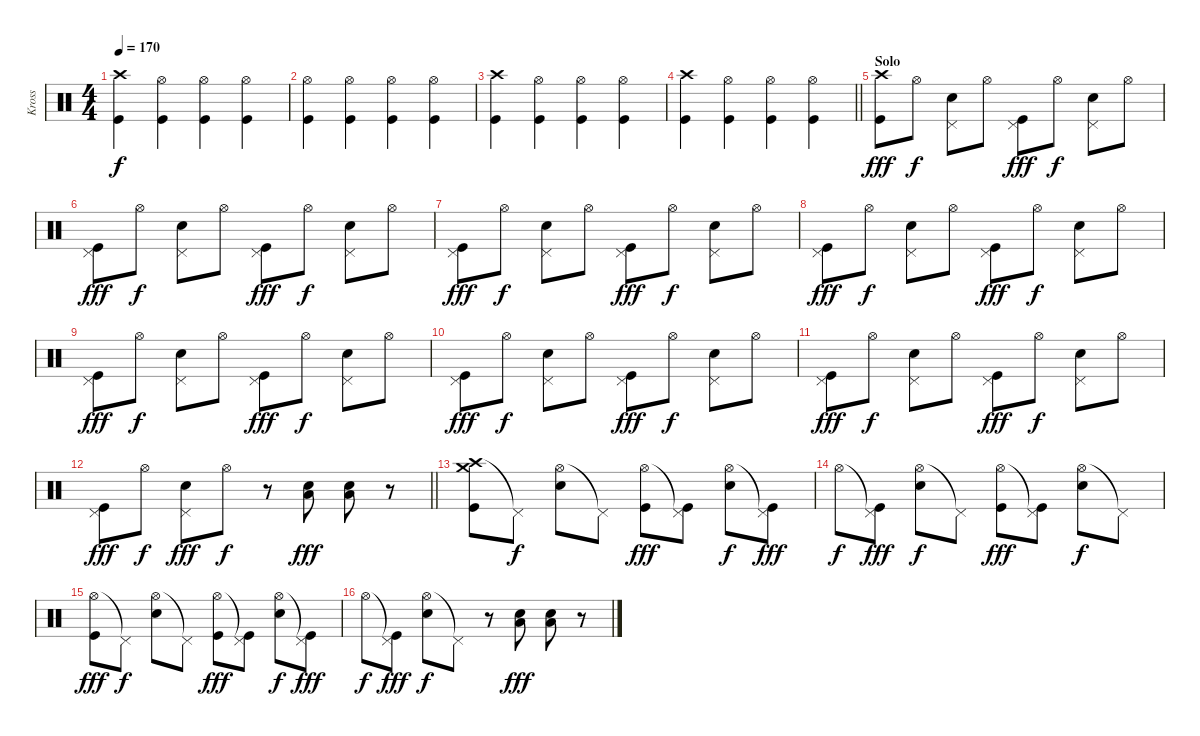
\track ("Kross" "Kross") {instrument percussion}
\staff {score}
\articulation defaults
\ts (4 4)
\tempo 170
\clef neutral
\ks c
("Crash high (hit)" "Kick (hit)").4{dy f} ("Hi-Hat (open)" "Kick (hit)").4 ("Hi-Hat (open)" "Kick (hit)").4 ("Hi-Hat (open)" "Kick (hit)").4 |
("Hi-Hat (open)" "Kick (hit)").4 ("Hi-Hat (open)" "Kick (hit)").4 ("Hi-Hat (open)" "Kick (hit)").4 ("Hi-Hat (open)" "Kick (hit)").4 |
("Crash high (hit)" "Kick (hit)").4 ("Hi-Hat (open)" "Kick (hit)").4 ("Hi-Hat (open)" "Kick (hit)").4 ("Hi-Hat (open)" "Kick (hit)").4 |
\barLineRight lightlight
("Crash high (hit)" "Kick (hit)").4 ("Hi-Hat (open)" "Kick (hit)").4 ("Hi-Hat (open)" "Kick (hit)").4 ("Hi-Hat (open)" "Kick (hit)").4 |
\section ("" "Solo")
("Crash high (hit)" "Kick (hit)").8{dy fff} "Hi-Hat (open)".8{dy f} ("Pedal Hi-Hat (hit)" "Electric Snare (hit)").8 "Hi-Hat (open)".8 ("Pedal Hi-Hat (hit)" "Kick (hit)").8{dy fff} "Hi-Hat (open)".8{dy f} ("Pedal Hi-Hat (hit)" "Electric Snare (hit)").8 "Hi-Hat (open)".8 |
("Pedal Hi-Hat (hit)" "Kick (hit)").8{dy fff} "Hi-Hat (open)".8{dy f} ("Pedal Hi-Hat (hit)" "Electric Snare (hit)").8 "Hi-Hat (open)".8 ("Pedal Hi-Hat (hit)" "Kick (hit)").8{dy fff} "Hi-Hat (open)".8{dy f} ("Pedal Hi-Hat (hit)" "Electric Snare (hit)").8 "Hi-Hat (open)".8 |
("Pedal Hi-Hat (hit)" "Kick (hit)").8{dy fff} "Hi-Hat (open)".8{dy f} ("Pedal Hi-Hat (hit)" "Electric Snare (hit)").8 "Hi-Hat (open)".8 ("Pedal Hi-Hat (hit)" "Kick (hit)").8{dy fff} "Hi-Hat (open)".8{dy f} ("Pedal Hi-Hat (hit)" "Electric Snare (hit)").8 "Hi-Hat (open)".8 |
("Pedal Hi-Hat (hit)" "Kick (hit)").8{dy fff} "Hi-Hat (open)".8{dy f} ("Pedal Hi-Hat (hit)" "Electric Snare (hit)").8 "Hi-Hat (open)".8 ("Pedal Hi-Hat (hit)" "Kick (hit)").8{dy fff} "Hi-Hat (open)".8{dy f} ("Pedal Hi-Hat (hit)" "Electric Snare (hit)").8 "Hi-Hat (open)".8 |
("Pedal Hi-Hat (hit)" "Kick (hit)").8{dy fff} "Hi-Hat (open)".8{dy f} ("Pedal Hi-Hat (hit)" "Electric Snare (hit)").8 "Hi-Hat (open)".8 ("Pedal Hi-Hat (hit)" "Kick (hit)").8{dy fff} "Hi-Hat (open)".8{dy f} ("Pedal Hi-Hat (hit)" "Electric Snare (hit)").8 "Hi-Hat (open)".8 |
("Pedal Hi-Hat (hit)" "Kick (hit)").8{dy fff} "Hi-Hat (open)".8{dy f} ("Pedal Hi-Hat (hit)" "Electric Snare (hit)").8 "Hi-Hat (open)".8 ("Pedal Hi-Hat (hit)" "Kick (hit)").8{dy fff} "Hi-Hat (open)".8{dy f} ("Pedal Hi-Hat (hit)" "Electric Snare (hit)").8 "Hi-Hat (open)".8 |
("Pedal Hi-Hat (hit)" "Kick (hit)").8{dy fff} "Hi-Hat (open)".8{dy f} ("Pedal Hi-Hat (hit)" "Electric Snare (hit)").8 "Hi-Hat (open)".8 ("Pedal Hi-Hat (hit)" "Kick (hit)").8{dy fff} "Hi-Hat (open)".8{dy f} ("Pedal Hi-Hat (hit)" "Electric Snare (hit)").8 "Hi-Hat (open)".8 |
\barLineRight lightlight
("Pedal Hi-Hat (hit)" "Kick (hit)").8{dy fff} "Hi-Hat (open)".8{dy f} ("Pedal Hi-Hat (hit)" "Electric Snare (hit)").8{dy fff} "Hi-Hat (open)".8{dy f} r.8 ("Low Floor Tom (hit)" "Electric Snare (hit)").8{dy fff} ("Low Floor Tom (hit)" "Electric Snare (hit)").8 r.8 |
("Crash high (hit)" "Crash medium (hit)" "Kick (hit)").8 "Pedal Hi-Hat (hit)"{t}.8{dy f} ("Hi-Hat (open)" "Electric Snare (hit)").8 "Pedal Hi-Hat (hit)"{t}.8 ("Hi-Hat (open)" "Kick (hit)").8{dy fff} ("Pedal Hi-Hat (hit)"{t} "Kick (hit)").8 ("Hi-Hat (open)" "Electric Snare (hit)").8{dy f} ("Pedal Hi-Hat (hit)"{t} "Kick (hit)").8{dy fff} |
"Hi-Hat (open)".8{dy f} ("Pedal Hi-Hat (hit)"{t} "Kick (hit)").8{dy fff} ("Hi-Hat (open)" "Electric Snare (hit)").8{dy f} "Pedal Hi-Hat (hit)"{t}.8 ("Hi-Hat (open)" "Kick (hit)").8{dy fff} ("Pedal Hi-Hat (hit)"{t} "Kick (hit)").8 ("Hi-Hat (open)" "Electric Snare (hit)").8{dy f} "Pedal Hi-Hat (hit)"{t}.8 |
("Hi-Hat (open)" "Kick (hit)").8{dy fff} "Pedal Hi-Hat (hit)"{t}.8{dy f} ("Hi-Hat (open)" "Electric Snare (hit)").8 "Pedal Hi-Hat (hit)"{t}.8 ("Hi-Hat (open)" "Kick (hit)").8{dy fff} ("Pedal Hi-Hat (hit)"{t} "Kick (hit)").8 ("Hi-Hat (open)" "Electric Snare (hit)").8{dy f} ("Pedal Hi-Hat (hit)"{t} "Kick (hit)").8{dy fff} |
"Hi-Hat (open)".8{dy f} ("Pedal Hi-Hat (hit)"{t} "Kick (hit)").8{dy fff} ("Hi-Hat (open)" "Electric Snare (hit)").8{dy f} "Pedal Hi-Hat (hit)"{t}.8 r.8 ("Low Floor Tom (hit)" "Electric Snare (hit)").8{dy fff} ("Low Floor Tom (hit)" "Electric Snare (hit)").8 r.8
